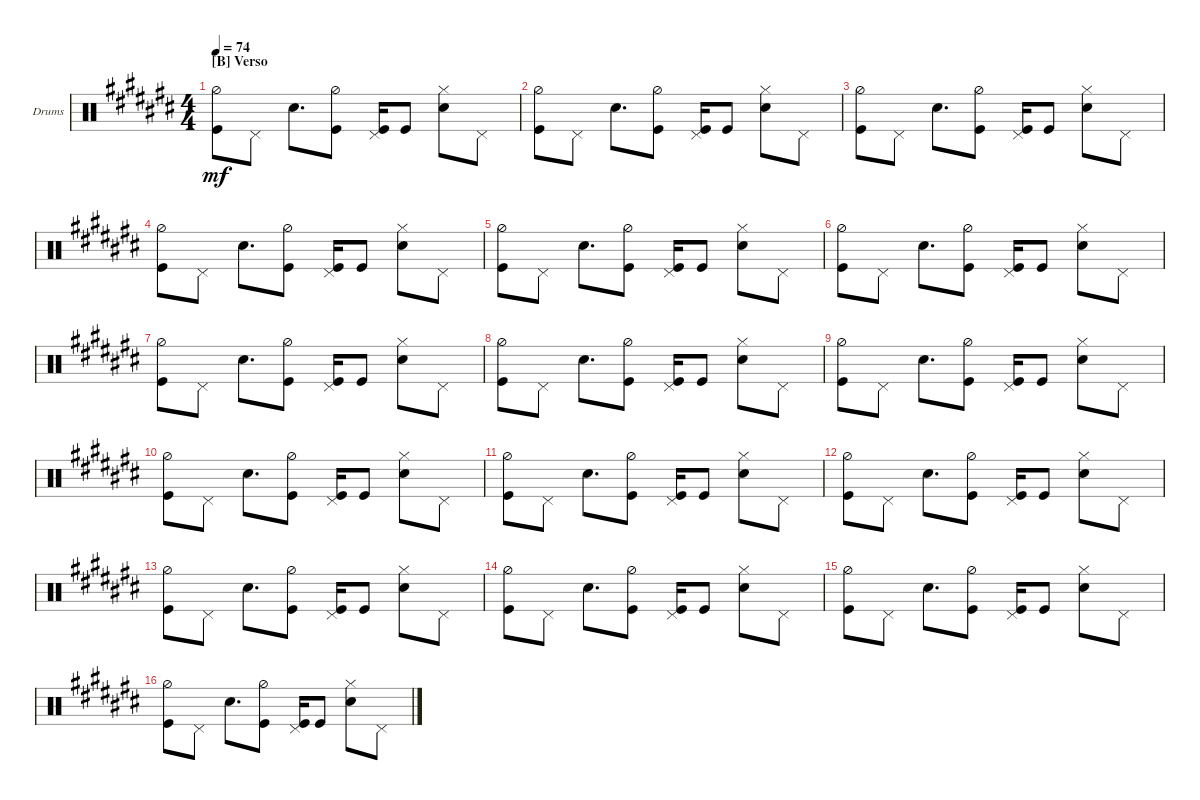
\defaultSystemsLayout 4
\bracketExtendMode groupsimilarinstruments
\firstSystemTrackNameOrientation horizontal
\otherSystemsTrackNameOrientation horizontal
\track ("Drum" "Drums") {multiBarRest instrument percussion}
\staff {score}
\articulation defaults
\ts (4 4)
\section ("B" "Verso")
\tempo 74
\clef neutral
\ks c#
("Kick (hit)" "Hi-Hat (half)").8{dy mf} "Pedal Hi-Hat (hit)".8 "Snare (hit) 2".8{d} ("Kick (hit)" "Hi-Hat (half)").8 ("Kick (hit)" "Pedal Hi-Hat (hit)").16 "Kick (hit)".8 ("Snare (hit) 2" "Hi-Hat (closed)").8 "Pedal Hi-Hat (hit)".8 |
("Kick (hit)" "Hi-Hat (half)").8 "Pedal Hi-Hat (hit)".8 "Snare (hit) 2".8{d} ("Kick (hit)" "Hi-Hat (half)").8 ("Kick (hit)" "Pedal Hi-Hat (hit)").16 "Kick (hit)".8 ("Snare (hit) 2" "Hi-Hat (closed)").8 "Pedal Hi-Hat (hit)".8 |
("Kick (hit)" "Hi-Hat (half)").8 "Pedal Hi-Hat (hit)".8 "Snare (hit) 2".8{d} ("Kick (hit)" "Hi-Hat (half)").8 ("Kick (hit)" "Pedal Hi-Hat (hit)").16 "Kick (hit)".8 ("Snare (hit) 2" "Hi-Hat (closed)").8 "Pedal Hi-Hat (hit)".8 |
("Kick (hit)" "Hi-Hat (half)").8 "Pedal Hi-Hat (hit)".8 "Snare (hit) 2".8{d} ("Kick (hit)" "Hi-Hat (half)").8 ("Kick (hit)" "Pedal Hi-Hat (hit)").16 "Kick (hit)".8 ("Snare (hit) 2" "Hi-Hat (closed)").8 "Pedal Hi-Hat (hit)".8 |
("Kick (hit)" "Hi-Hat (half)").8 "Pedal Hi-Hat (hit)".8 "Snare (hit) 2".8{d} ("Kick (hit)" "Hi-Hat (half)").8 ("Kick (hit)" "Pedal Hi-Hat (hit)").16 "Kick (hit)".8 ("Snare (hit) 2" "Hi-Hat (closed)").8 "Pedal Hi-Hat (hit)".8 |
("Kick (hit)" "Hi-Hat (half)").8 "Pedal Hi-Hat (hit)".8 "Snare (hit) 2".8{d} ("Kick (hit)" "Hi-Hat (half)").8 ("Kick (hit)" "Pedal Hi-Hat (hit)").16 "Kick (hit)".8 ("Snare (hit) 2" "Hi-Hat (closed)").8 "Pedal Hi-Hat (hit)".8 |
("Kick (hit)" "Hi-Hat (half)").8 "Pedal Hi-Hat (hit)".8 "Snare (hit) 2".8{d} ("Kick (hit)" "Hi-Hat (half)").8 ("Kick (hit)" "Pedal Hi-Hat (hit)").16 "Kick (hit)".8 ("Snare (hit) 2" "Hi-Hat (closed)").8 "Pedal Hi-Hat (hit)".8 |
("Kick (hit)" "Hi-Hat (half)").8 "Pedal Hi-Hat (hit)".8 "Snare (hit) 2".8{d} ("Kick (hit)" "Hi-Hat (half)").8 ("Kick (hit)" "Pedal Hi-Hat (hit)").16 "Kick (hit)".8 ("Snare (hit) 2" "Hi-Hat (closed)").8 "Pedal Hi-Hat (hit)".8 |
("Kick (hit)" "Hi-Hat (half)").8 "Pedal Hi-Hat (hit)".8 "Snare (hit) 2".8{d} ("Kick (hit)" "Hi-Hat (half)").8 ("Kick (hit)" "Pedal Hi-Hat (hit)").16 "Kick (hit)".8 ("Snare (hit) 2" "Hi-Hat (closed)").8 "Pedal Hi-Hat (hit)".8 |
("Kick (hit)" "Hi-Hat (half)").8 "Pedal Hi-Hat (hit)".8 "Snare (hit) 2".8{d} ("Kick (hit)" "Hi-Hat (half)").8 ("Kick (hit)" "Pedal Hi-Hat (hit)").16 "Kick (hit)".8 ("Snare (hit) 2" "Hi-Hat (closed)").8 "Pedal Hi-Hat (hit)".8 |
("Kick (hit)" "Hi-Hat (half)").8 "Pedal Hi-Hat (hit)".8 "Snare (hit) 2".8{d} ("Kick (hit)" "Hi-Hat (half)").8 ("Kick (hit)" "Pedal Hi-Hat (hit)").16 "Kick (hit)".8 ("Snare (hit) 2" "Hi-Hat (closed)").8 "Pedal Hi-Hat (hit)".8 |
("Kick (hit)" "Hi-Hat (half)").8 "Pedal Hi-Hat (hit)".8 "Snare (hit) 2".8{d} ("Kick (hit)" "Hi-Hat (half)").8 ("Kick (hit)" "Pedal Hi-Hat (hit)").16 "Kick (hit)".8 ("Snare (hit) 2" "Hi-Hat (closed)").8 "Pedal Hi-Hat (hit)".8 |
("Kick (hit)" "Hi-Hat (half)").8 "Pedal Hi-Hat (hit)".8 "Snare (hit) 2".8{d} ("Kick (hit)" "Hi-Hat (half)").8 ("Kick (hit)" "Pedal Hi-Hat (hit)").16 "Kick (hit)".8 ("Snare (hit) 2" "Hi-Hat (closed)").8 "Pedal Hi-Hat (hit)".8 |
("Kick (hit)" "Hi-Hat (half)").8 "Pedal Hi-Hat (hit)".8 "Snare (hit) 2".8{d} ("Kick (hit)" "Hi-Hat (half)").8 ("Kick (hit)" "Pedal Hi-Hat (hit)").16 "Kick (hit)".8 ("Snare (hit) 2" "Hi-Hat (closed)").8 "Pedal Hi-Hat (hit)".8 |
("Kick (hit)" "Hi-Hat (half)").8 "Pedal Hi-Hat (hit)".8 "Snare (hit) 2".8{d} ("Kick (hit)" "Hi-Hat (half)").8 ("Kick (hit)" "Pedal Hi-Hat (hit)").16 "Kick (hit)".8 ("Snare (hit) 2" "Hi-Hat (closed)").8 "Pedal Hi-Hat (hit)".8 |
("Kick (hit)" "Hi-Hat (half)").8 "Pedal Hi-Hat (hit)".8 "Snare (hit) 2".8{d} ("Kick (hit)" "Hi-Hat (half)").8 ("Kick (hit)" "Pedal Hi-Hat (hit)").16 "Kick (hit)".8 ("Snare (hit) 2" "Hi-Hat (closed)").8 "Pedal Hi-Hat (hit)".8
